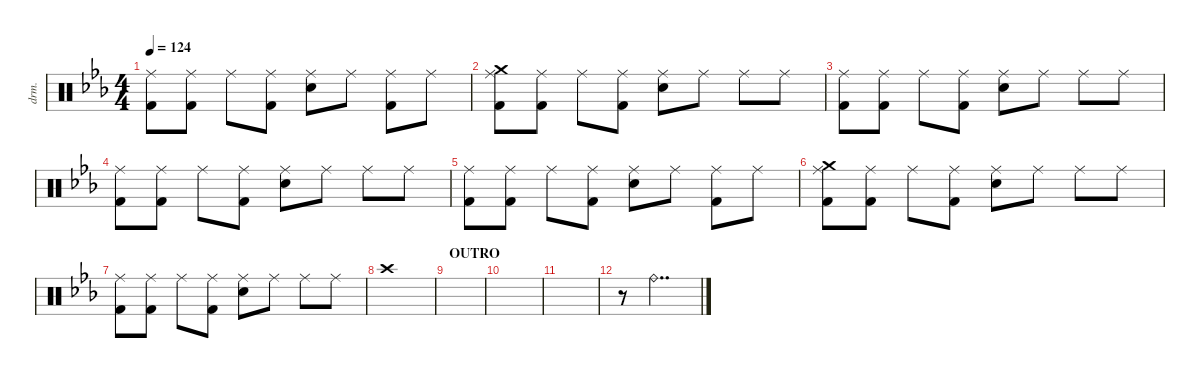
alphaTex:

\defaultSystemsLayout 4
\hideDynamics
\bracketExtendMode nobrackets
\otherSystemsTrackNameOrientation horizontal
\track ("Drumkit" "drm.") {instrument percussion}
\staff {score}
\articulation defaults
\ts (4 4)
\tempo 124
\clef neutral
\ks cminor
("Ride (middle)"{acc forcenatural} "Kick (hit) 2"{acc forcenatural}).8{dy mf beam Down} ("Ride (middle)"{acc forcenatural} "Kick (hit) 2"{acc forcenatural}).8{beam Down} "Ride (middle)"{acc forcenatural}.8{beam Down} ("Ride (middle)"{acc forcenatural} "Kick (hit) 2"{acc forcenatural}).8{beam Down} ("Ride (middle)"{acc forcenatural} "Snare (hit) 2"{acc forcenatural}).8{beam Down} "Ride (middle)"{acc forcenatural}.8{beam Down} ("Ride (middle)"{acc forcenatural} "Kick (hit) 2"{acc forcenatural}).8{beam Down} "Ride (middle)"{acc forcenatural}.8{beam Down} |
("Ride (middle)"{acc forcenatural} "Kick (hit) 2"{acc forcenatural} "Crash medium (hit)"{acc forcenatural}).8{beam Down} ("Ride (middle)"{acc forcenatural} "Kick (hit) 2"{acc forcenatural}).8{beam Down} "Ride (middle)"{acc forcenatural}.8{beam Down} ("Ride (middle)"{acc forcenatural} "Kick (hit) 2"{acc forcenatural}).8{beam Down} ("Ride (middle)"{acc forcenatural} "Snare (hit) 2"{acc forcenatural}).8{beam Down} "Ride (middle)"{acc forcenatural}.8{beam Down} "Ride (middle)"{acc forcenatural}.8{beam Down} "Ride (middle)"{acc forcenatural}.8{beam Down} |
("Ride (middle)"{acc forcenatural} "Kick (hit) 2"{acc forcenatural}).8{beam Down} ("Ride (middle)"{acc forcenatural} "Kick (hit) 2"{acc forcenatural}).8{beam Down} "Ride (middle)"{acc forcenatural}.8{beam Down} ("Ride (middle)"{acc forcenatural} "Kick (hit) 2"{acc forcenatural}).8{beam Down} ("Ride (middle)"{acc forcenatural} "Snare (hit) 2"{acc forcenatural}).8{beam Down} "Ride (middle)"{acc forcenatural}.8{beam Down} "Ride (middle)"{acc forcenatural}.8{beam Down} "Ride (middle)"{acc forcenatural}.8{beam Down} |
("Ride (middle)"{acc forcenatural} "Kick (hit) 2"{acc forcenatural}).8{beam Down} ("Ride (middle)"{acc forcenatural} "Kick (hit) 2"{acc forcenatural}).8{beam Down} "Ride (middle)"{acc forcenatural}.8{beam Down} ("Ride (middle)"{acc forcenatural} "Kick (hit) 2"{acc forcenatural}).8{beam Down} ("Ride (middle)"{acc forcenatural} "Snare (hit) 2"{acc forcenatural}).8{beam Down} "Ride (middle)"{acc forcenatural}.8{beam Down} "Ride (middle)"{acc forcenatural}.8{beam Down} "Ride (middle)"{acc forcenatural}.8{beam Down} |
("Ride (middle)"{acc forcenatural} "Kick (hit) 2"{acc forcenatural}).8{beam Down} ("Ride (middle)"{acc forcenatural} "Kick (hit) 2"{acc forcenatural}).8{beam Down} "Ride (middle)"{acc forcenatural}.8{beam Down} ("Ride (middle)"{acc forcenatural} "Kick (hit) 2"{acc forcenatural}).8{beam Down} ("Ride (middle)"{acc forcenatural} "Snare (hit) 2"{acc forcenatural}).8{beam Down} "Ride (middle)"{acc forcenatural}.8{beam Down} ("Ride (middle)"{acc forcenatural} "Kick (hit) 2"{acc forcenatural}).8{beam Down} "Ride (middle)"{acc forcenatural}.8{beam Down} |
("Ride (middle)"{acc forcenatural} "Kick (hit) 2"{acc forcenatural} "Crash medium (hit)"{acc forcenatural}).8{beam Down} ("Ride (middle)"{acc forcenatural} "Kick (hit) 2"{acc forcenatural}).8{beam Down} "Ride (middle)"{acc forcenatural}.8{beam Down} ("Ride (middle)"{acc forcenatural} "Kick (hit) 2"{acc forcenatural}).8{beam Down} ("Ride (middle)"{acc forcenatural} "Snare (hit) 2"{acc forcenatural}).8{beam Down} "Ride (middle)"{acc forcenatural}.8{beam Down} "Ride (middle)"{acc forcenatural}.8{beam Down} "Ride (middle)"{acc forcenatural}.8{beam Down} |
("Ride (middle)"{acc forcenatural} "Kick (hit) 2"{acc forcenatural}).8{beam Down} ("Ride (middle)"{acc forcenatural} "Kick (hit) 2"{acc forcenatural}).8{beam Down} "Ride (middle)"{acc forcenatural}.8{beam Down} ("Ride (middle)"{acc forcenatural} "Kick (hit) 2"{acc forcenatural}).8{beam Down} ("Ride (middle)"{acc forcenatural} "Snare (hit) 2"{acc forcenatural}).8{beam Down} "Ride (middle)"{acc forcenatural}.8{beam Down} "Ride (middle)"{acc forcenatural}.8{beam Down} "Ride (middle)"{acc forcenatural}.8{beam Down} |
"Crash high (hit)"{acc forcenatural}.1{beam Down} |
\section ("" "OUTRO")
|
|
|
r.8{beam Down} "Ride (bell)"{acc forcenatural}.2{dd beam Down}
